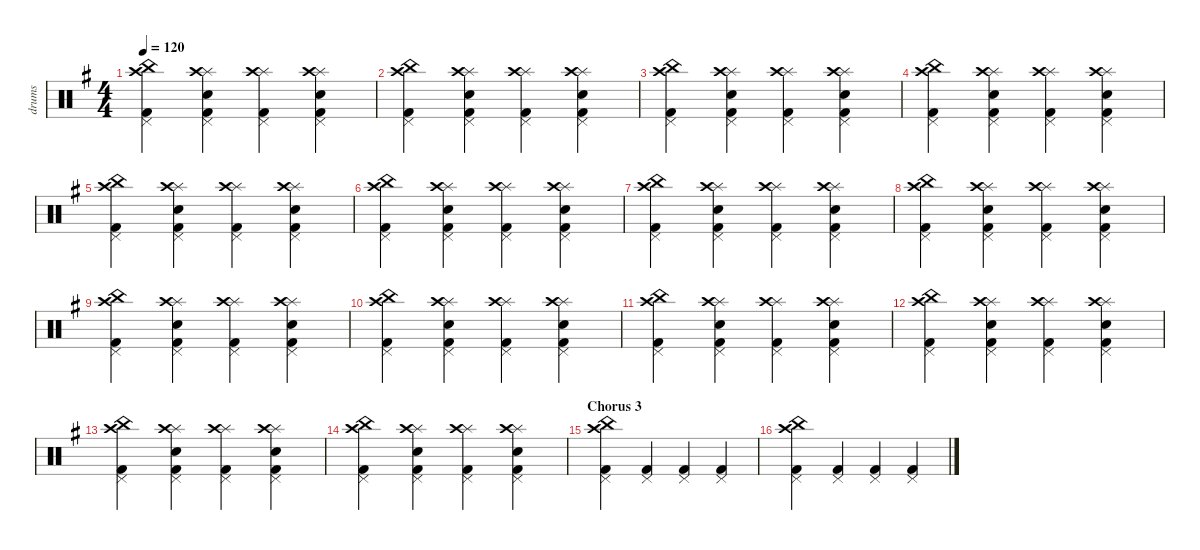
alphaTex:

\defaultSystemsLayout 4
\hideDynamics
\bracketExtendMode nobrackets
\otherSystemsTrackNameOrientation horizontal
\track ("drums" "drums") {instrument percussion}
\staff {score}
\articulation defaults
\ts (4 4)
\tempo 120
\clef neutral
\scale
1.07945
\ks eminor
("Kick (hit) 2"{acc forcenatural} "China (hit)"{acc forcenatural} "Crash high (hit)"{acc forcenatural} "Pedal Hi-Hat (hit)"{acc forcenatural}).4{dy mf beam Down} ("Kick (hit) 2"{acc forcenatural} "Pedal Hi-Hat (hit)"{acc forcenatural} "Snare (hit) 2"{acc forcenatural} "Splash (hit)"{acc forcenatural} "Crash high (hit)"{acc forcenatural}).4{beam Down} ("Kick (hit) 2"{acc forcenatural} "Pedal Hi-Hat (hit)"{acc forcenatural} "Splash (hit)"{acc forcenatural} "Crash high (hit)"{acc forcenatural}).4{beam Down} ("Kick (hit) 2"{acc forcenatural} "Pedal Hi-Hat (hit)"{acc forcenatural} "Snare (hit) 2"{acc forcenatural} "Splash (hit)"{acc forcenatural} "Crash high (hit)"{acc forcenatural}).4{beam Down} |
\scale
0.973518 ("Kick (hit) 2"{acc forcenatural} "China (hit)"{acc forcenatural} "Crash high (hit)"{acc forcenatural} "Pedal Hi-Hat (hit)"{acc forcenatural}).4{beam Down} ("Kick (hit) 2"{acc forcenatural} "Pedal Hi-Hat (hit)"{acc forcenatural} "Snare (hit) 2"{acc forcenatural} "Splash (hit)"{acc forcenatural} "Crash high (hit)"{acc forcenatural}).4{beam Down} ("Kick (hit) 2"{acc forcenatural} "Pedal Hi-Hat (hit)"{acc forcenatural} "Splash (hit)"{acc forcenatural} "Crash high (hit)"{acc forcenatural}).4{beam Down} ("Kick (hit) 2"{acc forcenatural} "Pedal Hi-Hat (hit)"{acc forcenatural} "Snare (hit) 2"{acc forcenatural} "Splash (hit)"{acc forcenatural} "Crash high (hit)"{acc forcenatural}).4{beam Down} |
\scale
0.973518 ("Kick (hit) 2"{acc forcenatural} "China (hit)"{acc forcenatural} "Crash high (hit)"{acc forcenatural} "Pedal Hi-Hat (hit)"{acc forcenatural}).4{beam Down} ("Kick (hit) 2"{acc forcenatural} "Pedal Hi-Hat (hit)"{acc forcenatural} "Snare (hit) 2"{acc forcenatural} "Splash (hit)"{acc forcenatural} "Crash high (hit)"{acc forcenatural}).4{beam Down} ("Kick (hit) 2"{acc forcenatural} "Pedal Hi-Hat (hit)"{acc forcenatural} "Splash (hit)"{acc forcenatural} "Crash high (hit)"{acc forcenatural}).4{beam Down} ("Kick (hit) 2"{acc forcenatural} "Pedal Hi-Hat (hit)"{acc forcenatural} "Snare (hit) 2"{acc forcenatural} "Splash (hit)"{acc forcenatural} "Crash high (hit)"{acc forcenatural}).4{beam Down} |
\scale
0.973518 ("Kick (hit) 2"{acc forcenatural} "China (hit)"{acc forcenatural} "Crash high (hit)"{acc forcenatural} "Pedal Hi-Hat (hit)"{acc forcenatural}).4{beam Down} ("Kick (hit) 2"{acc forcenatural} "Pedal Hi-Hat (hit)"{acc forcenatural} "Snare (hit) 2"{acc forcenatural} "Splash (hit)"{acc forcenatural} "Crash high (hit)"{acc forcenatural}).4{beam Down} ("Kick (hit) 2"{acc forcenatural} "Pedal Hi-Hat (hit)"{acc forcenatural} "Splash (hit)"{acc forcenatural} "Crash high (hit)"{acc forcenatural}).4{beam Down} ("Kick (hit) 2"{acc forcenatural} "Pedal Hi-Hat (hit)"{acc forcenatural} "Snare (hit) 2"{acc forcenatural} "Splash (hit)"{acc forcenatural} "Crash high (hit)"{acc forcenatural}).4{beam Down} |
\scale
1.07945 ("Kick (hit) 2"{acc forcenatural} "China (hit)"{acc forcenatural} "Crash high (hit)"{acc forcenatural} "Pedal Hi-Hat (hit)"{acc forcenatural}).4{beam Down} ("Kick (hit) 2"{acc forcenatural} "Pedal Hi-Hat (hit)"{acc forcenatural} "Snare (hit) 2"{acc forcenatural} "Splash (hit)"{acc forcenatural} "Crash high (hit)"{acc forcenatural}).4{beam Down} ("Kick (hit) 2"{acc forcenatural} "Pedal Hi-Hat (hit)"{acc forcenatural} "Splash (hit)"{acc forcenatural} "Crash high (hit)"{acc forcenatural}).4{beam Down} ("Kick (hit) 2"{acc forcenatural} "Pedal Hi-Hat (hit)"{acc forcenatural} "Snare (hit) 2"{acc forcenatural} "Splash (hit)"{acc forcenatural} "Crash high (hit)"{acc forcenatural}).4{beam Down} |
\scale
0.973518 ("Kick (hit) 2"{acc forcenatural} "China (hit)"{acc forcenatural} "Crash high (hit)"{acc forcenatural} "Pedal Hi-Hat (hit)"{acc forcenatural}).4{beam Down} ("Kick (hit) 2"{acc forcenatural} "Pedal Hi-Hat (hit)"{acc forcenatural} "Snare (hit) 2"{acc forcenatural} "Splash (hit)"{acc forcenatural} "Crash high (hit)"{acc forcenatural}).4{beam Down} ("Kick (hit) 2"{acc forcenatural} "Pedal Hi-Hat (hit)"{acc forcenatural} "Splash (hit)"{acc forcenatural} "Crash high (hit)"{acc forcenatural}).4{beam Down} ("Kick (hit) 2"{acc forcenatural} "Pedal Hi-Hat (hit)"{acc forcenatural} "Snare (hit) 2"{acc forcenatural} "Splash (hit)"{acc forcenatural} "Crash high (hit)"{acc forcenatural}).4{beam Down} |
\scale
0.973518 ("Kick (hit) 2"{acc forcenatural} "China (hit)"{acc forcenatural} "Crash high (hit)"{acc forcenatural} "Pedal Hi-Hat (hit)"{acc forcenatural}).4{beam Down} ("Kick (hit) 2"{acc forcenatural} "Pedal Hi-Hat (hit)"{acc forcenatural} "Snare (hit) 2"{acc forcenatural} "Splash (hit)"{acc forcenatural} "Crash high (hit)"{acc forcenatural}).4{beam Down} ("Kick (hit) 2"{acc forcenatural} "Pedal Hi-Hat (hit)"{acc forcenatural} "Splash (hit)"{acc forcenatural} "Crash high (hit)"{acc forcenatural}).4{beam Down} ("Kick (hit) 2"{acc forcenatural} "Pedal Hi-Hat (hit)"{acc forcenatural} "Snare (hit) 2"{acc forcenatural} "Splash (hit)"{acc forcenatural} "Crash high (hit)"{acc forcenatural}).4{beam Down} |
\scale
0.973518 ("Kick (hit) 2"{acc forcenatural} "China (hit)"{acc forcenatural} "Crash high (hit)"{acc forcenatural} "Pedal Hi-Hat (hit)"{acc forcenatural}).4{beam Down} ("Kick (hit) 2"{acc forcenatural} "Pedal Hi-Hat (hit)"{acc forcenatural} "Snare (hit) 2"{acc forcenatural} "Splash (hit)"{acc forcenatural} "Crash high (hit)"{acc forcenatural}).4{beam Down} ("Kick (hit) 2"{acc forcenatural} "Pedal Hi-Hat (hit)"{acc forcenatural} "Splash (hit)"{acc forcenatural} "Crash high (hit)"{acc forcenatural}).4{beam Down} ("Kick (hit) 2"{acc forcenatural} "Pedal Hi-Hat (hit)"{acc forcenatural} "Snare (hit) 2"{acc forcenatural} "Splash (hit)"{acc forcenatural} "Crash high (hit)"{acc forcenatural}).4{beam Down} |
\scale
1.07945 ("Kick (hit) 2"{acc forcenatural} "China (hit)"{acc forcenatural} "Crash high (hit)"{acc forcenatural} "Pedal Hi-Hat (hit)"{acc forcenatural}).4{beam Down} ("Kick (hit) 2"{acc forcenatural} "Pedal Hi-Hat (hit)"{acc forcenatural} "Snare (hit) 2"{acc forcenatural} "Splash (hit)"{acc forcenatural} "Crash high (hit)"{acc forcenatural}).4{beam Down} ("Kick (hit) 2"{acc forcenatural} "Pedal Hi-Hat (hit)"{acc forcenatural} "Splash (hit)"{acc forcenatural} "Crash high (hit)"{acc forcenatural}).4{beam Down} ("Kick (hit) 2"{acc forcenatural} "Pedal Hi-Hat (hit)"{acc forcenatural} "Snare (hit) 2"{acc forcenatural} "Splash (hit)"{acc forcenatural} "Crash high (hit)"{acc forcenatural}).4{beam Down} |
\scale
0.973518 ("Kick (hit) 2"{acc forcenatural} "China (hit)"{acc forcenatural} "Crash high (hit)"{acc forcenatural} "Pedal Hi-Hat (hit)"{acc forcenatural}).4{beam Down} ("Kick (hit) 2"{acc forcenatural} "Pedal Hi-Hat (hit)"{acc forcenatural} "Snare (hit) 2"{acc forcenatural} "Splash (hit)"{acc forcenatural} "Crash high (hit)"{acc forcenatural}).4{beam Down} ("Kick (hit) 2"{acc forcenatural} "Pedal Hi-Hat (hit)"{acc forcenatural} "Splash (hit)"{acc forcenatural} "Crash high (hit)"{acc forcenatural}).4{beam Down} ("Kick (hit) 2"{acc forcenatural} "Pedal Hi-Hat (hit)"{acc forcenatural} "Snare (hit) 2"{acc forcenatural} "Splash (hit)"{acc forcenatural} "Crash high (hit)"{acc forcenatural}).4{beam Down} |
\scale
0.973518 ("Kick (hit) 2"{acc forcenatural} "China (hit)"{acc forcenatural} "Crash high (hit)"{acc forcenatural} "Pedal Hi-Hat (hit)"{acc forcenatural}).4{beam Down} ("Kick (hit) 2"{acc forcenatural} "Pedal Hi-Hat (hit)"{acc forcenatural} "Snare (hit) 2"{acc forcenatural} "Splash (hit)"{acc forcenatural} "Crash high (hit)"{acc forcenatural}).4{beam Down} ("Kick (hit) 2"{acc forcenatural} "Pedal Hi-Hat (hit)"{acc forcenatural} "Splash (hit)"{acc forcenatural} "Crash high (hit)"{acc forcenatural}).4{beam Down} ("Kick (hit) 2"{acc forcenatural} "Pedal Hi-Hat (hit)"{acc forcenatural} "Snare (hit) 2"{acc forcenatural} "Splash (hit)"{acc forcenatural} "Crash high (hit)"{acc forcenatural}).4{beam Down} |
\scale
0.973518 ("Kick (hit) 2"{acc forcenatural} "China (hit)"{acc forcenatural} "Crash high (hit)"{acc forcenatural} "Pedal Hi-Hat (hit)"{acc forcenatural}).4{beam Down} ("Kick (hit) 2"{acc forcenatural} "Pedal Hi-Hat (hit)"{acc forcenatural} "Snare (hit) 2"{acc forcenatural} "Splash (hit)"{acc forcenatural} "Crash high (hit)"{acc forcenatural}).4{beam Down} ("Kick (hit) 2"{acc forcenatural} "Pedal Hi-Hat (hit)"{acc forcenatural} "Splash (hit)"{acc forcenatural} "Crash high (hit)"{acc forcenatural}).4{beam Down} ("Kick (hit) 2"{acc forcenatural} "Pedal Hi-Hat (hit)"{acc forcenatural} "Snare (hit) 2"{acc forcenatural} "Splash (hit)"{acc forcenatural} "Crash high (hit)"{acc forcenatural}).4{beam Down} |
\scale
1.07945 ("Kick (hit) 2"{acc forcenatural} "China (hit)"{acc forcenatural} "Crash high (hit)"{acc forcenatural} "Pedal Hi-Hat (hit)"{acc forcenatural}).4{beam Down} ("Kick (hit) 2"{acc forcenatural} "Pedal Hi-Hat (hit)"{acc forcenatural} "Snare (hit) 2"{acc forcenatural} "Splash (hit)"{acc forcenatural} "Crash high (hit)"{acc forcenatural}).4{beam Down} ("Kick (hit) 2"{acc forcenatural} "Pedal Hi-Hat (hit)"{acc forcenatural} "Splash (hit)"{acc forcenatural} "Crash high (hit)"{acc forcenatural}).4{beam Down} ("Kick (hit) 2"{acc forcenatural} "Pedal Hi-Hat (hit)"{acc forcenatural} "Snare (hit) 2"{acc forcenatural} "Splash (hit)"{acc forcenatural} "Crash high (hit)"{acc forcenatural}).4{beam Down} |
\scale
0.973518 ("Kick (hit) 2"{acc forcenatural} "China (hit)"{acc forcenatural} "Crash high (hit)"{acc forcenatural} "Pedal Hi-Hat (hit)"{acc forcenatural}).4{beam Down} ("Kick (hit) 2"{acc forcenatural} "Pedal Hi-Hat (hit)"{acc forcenatural} "Snare (hit) 2"{acc forcenatural} "Splash (hit)"{acc forcenatural} "Crash high (hit)"{acc forcenatural}).4{beam Down} ("Kick (hit) 2"{acc forcenatural} "Pedal Hi-Hat (hit)"{acc forcenatural} "Splash (hit)"{acc forcenatural} "Crash high (hit)"{acc forcenatural}).4{beam Down} ("Kick (hit) 2"{acc forcenatural} "Pedal Hi-Hat (hit)"{acc forcenatural} "Snare (hit) 2"{acc forcenatural} "Splash (hit)"{acc forcenatural} "Crash high (hit)"{acc forcenatural}).4{beam Down} |
\section ("" "Chorus 3")
\scale
0.973518 ("Kick (hit) 2"{acc forcenatural} "China (hit)"{acc forcenatural} "Crash high (hit)"{acc forcenatural} "Pedal Hi-Hat (hit)"{acc forcenatural}).4{beam Down} ("Kick (hit) 2"{acc forcenatural} "Pedal Hi-Hat (hit)"{acc forcenatural}).4{beam Up} ("Kick (hit) 2"{acc forcenatural} "Pedal Hi-Hat (hit)"{acc forcenatural}).4{beam Up} ("Kick (hit) 2"{acc forcenatural} "Pedal Hi-Hat (hit)"{acc forcenatural}).4{beam Up} |
\scale
0.973518 ("Kick (hit) 2"{acc forcenatural} "China (hit)"{acc forcenatural} "Crash high (hit)"{acc forcenatural} "Pedal Hi-Hat (hit)"{acc forcenatural}).4{beam Down} ("Kick (hit) 2"{acc forcenatural} "Pedal Hi-Hat (hit)"{acc forcenatural}).4{beam Up} ("Kick (hit) 2"{acc forcenatural} "Pedal Hi-Hat (hit)"{acc forcenatural}).4{beam Up} ("Kick (hit) 2"{acc forcenatural} "Pedal Hi-Hat (hit)"{acc forcenatural}).4{beam Up}
